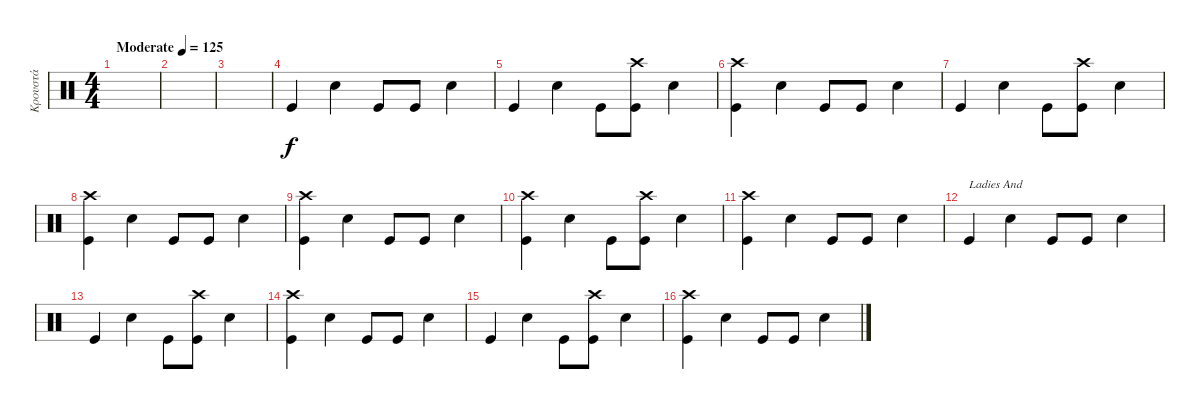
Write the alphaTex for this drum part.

\track ("Κρουστά" "Κρουστά") {instrument percussion}
\staff {score}
\articulation defaults
\ts (4 4)
\tempo (125 "Moderate")
\clef neutral
\ks c
|
|
|
"Kick (hit)".4 "Electric Snare (hit)".4 "Kick (hit)".8 "Kick (hit)".8 "Electric Snare (hit)".4 |
"Kick (hit)".4 "Electric Snare (hit)".4 "Kick (hit)".8 ("Crash high (hit)" "Kick (hit)").8 "Electric Snare (hit)".4 |
("Crash high (hit)" "Kick (hit)").4 "Electric Snare (hit)".4 "Kick (hit)".8 "Kick (hit)".8 "Electric Snare (hit)".4 |
"Kick (hit)".4 "Electric Snare (hit)".4 "Kick (hit)".8 ("Crash high (hit)" "Kick (hit)").8 "Electric Snare (hit)".4 |
("Crash high (hit)" "Kick (hit)").4 "Electric Snare (hit)".4 "Kick (hit)".8 "Kick (hit)".8 "Electric Snare (hit)".4 |
("Crash high (hit)" "Kick (hit)").4 "Electric Snare (hit)".4 "Kick (hit)".8 "Kick (hit)".8 "Electric Snare (hit)".4 |
("Crash high (hit)" "Kick (hit)").4 "Electric Snare (hit)".4 "Kick (hit)".8 ("Crash high (hit)" "Kick (hit)").8 "Electric Snare (hit)".4 |
("Crash high (hit)" "Kick (hit)").4 "Electric Snare (hit)".4 "Kick (hit)".8 "Kick (hit)".8 "Electric Snare (hit)".4 |
"Kick (hit)".4{txt "Ladies And"} "Electric Snare (hit)".4 "Kick (hit)".8 "Kick (hit)".8 "Electric Snare (hit)".4 |
"Kick (hit)".4 "Electric Snare (hit)".4 "Kick (hit)".8 ("Crash high (hit)" "Kick (hit)").8 "Electric Snare (hit)".4 |
("Crash high (hit)" "Kick (hit)").4 "Electric Snare (hit)".4 "Kick (hit)".8 "Kick (hit)".8 "Electric Snare (hit)".4 |
"Kick (hit)".4 "Electric Snare (hit)".4 "Kick (hit)".8 ("Crash high (hit)" "Kick (hit)").8 "Electric Snare (hit)".4 |
("Crash high (hit)" "Kick (hit)").4 "Electric Snare (hit)".4 "Kick (hit)".8 "Kick (hit)".8 "Electric Snare (hit)".4
